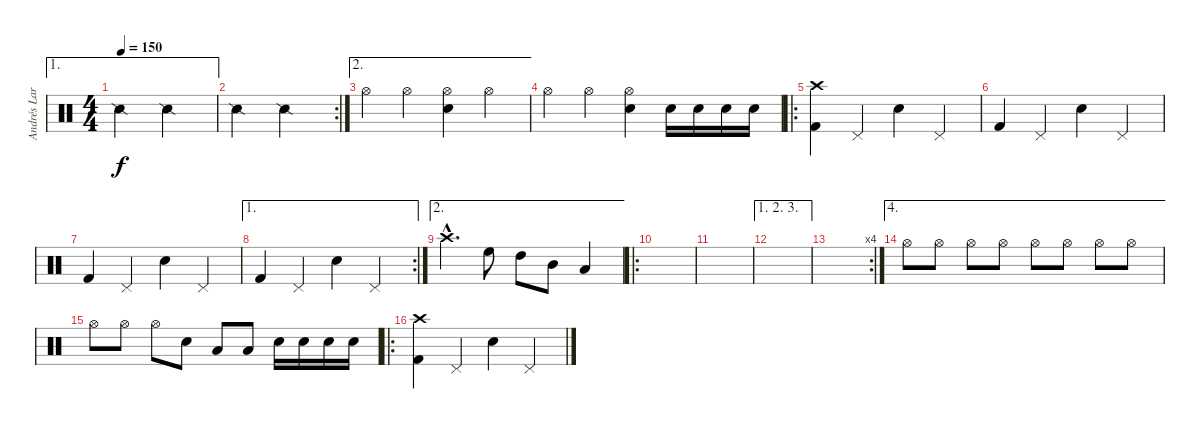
\track ("Andrés Larraín (batería)" "Andrés Lar") {instrument percussion}
\staff {score}
\articulation defaults
\ae 1
\ts (4 4)
\tempo 150
\clef neutral
\ks c "Snare (side stick) 2".2{dy f} "Snare (side stick) 2".2
|
\rc 2 "Snare (side stick) 2".2 "Snare (side stick) 2".2
|
\ae 2 "Hi-Hat (open)".4 "Hi-Hat (open)".4
("Hi-Hat (open)" "Snare (hit) 2").4 "Hi-Hat (open)".4 |
"Hi-Hat (open)".4 "Hi-Hat (open)".4 ("Hi-Hat (open)" "Snare (hit) 2").4 "Snare (hit) 2".16 "Electric Snare (hit)".16 "Snare (hit) 2".16 "Electric Snare (hit)".16 |
\ro
("Crash high (hit)" "Kick (hit) 2").4 "Pedal Hi-Hat (hit)".4 "Electric Snare (hit)".4 "Pedal Hi-Hat (hit)".4 |
"Kick (hit) 2".4 "Pedal Hi-Hat (hit)".4 "Electric Snare (hit)".4 "Pedal Hi-Hat (hit)".4 |
"Kick (hit) 2".4 "Pedal Hi-Hat (hit)".4 "Electric Snare (hit)".4 "Pedal Hi-Hat (hit)".4 |
\ae 1
\rc 2 "Kick (hit) 2".4 "Pedal Hi-Hat (hit)".4 "Electric Snare (hit)".4 "Pedal Hi-Hat (hit)".4
|
\ae 2 "Crash high (hit)"{hac}.4{d} "High Floor Tom (hit)".8 "High Tom (hit)".8 "Mid Tom (hit)".8 "Low Tom (hit)".4
|
\ro
|
|
\ae (1 2 3)
|
\rc 4
|
\ae 4 "Hi-Hat (open)".8 "Hi-Hat (open)".8 "Hi-Hat (open)".8 "Hi-Hat (open)".8 "Hi-Hat (open)".8 "Hi-Hat (open)".8 "Hi-Hat (open)".8 "Hi-Hat (open)".8
|
"Hi-Hat (open)".8 "Hi-Hat (open)".8 "Hi-Hat (open)".8 "Snare (hit) 2".8 "Low Floor Tom (hit)".8 "Low Floor Tom (hit)".8 "Snare (hit) 2".16 "Electric Snare (hit)".16 "Snare (hit) 2".16 "Electric Snare (hit)".16 |
\ro
("Crash high (hit)" "Kick (hit) 2").4 "Pedal Hi-Hat (hit)".4 "Electric Snare (hit)".4 "Pedal Hi-Hat (hit)".4
